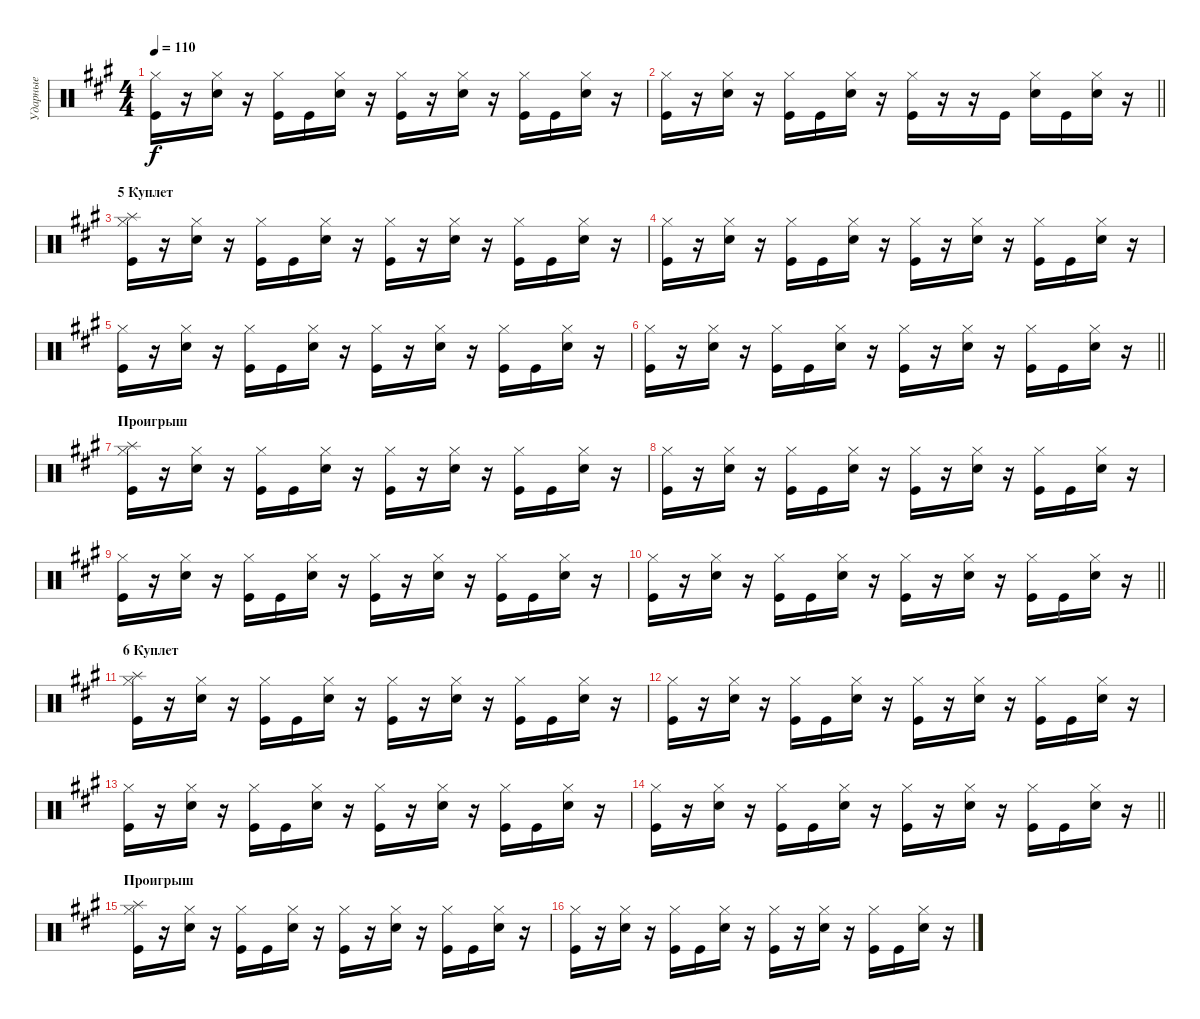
\track ("Ударные" "Ударные") {instrument percussion}
\staff {score}
\articulation defaults
\ts (4 4)
\tempo 110
\clef neutral
\ks f#minor
("Hi-Hat (closed)" "Kick (hit)").16{dy f} r.16 ("Hi-Hat (closed)" "Electric Snare (hit)").16 r.16 ("Hi-Hat (closed)" "Kick (hit)").16 "Kick (hit)".16 ("Hi-Hat (closed)" "Electric Snare (hit)").16 r.16 ("Hi-Hat (closed)" "Kick (hit)").16 r.16 ("Hi-Hat (closed)" "Electric Snare (hit)").16 r.16 ("Hi-Hat (closed)" "Kick (hit)").16 "Kick (hit)".16 ("Hi-Hat (closed)" "Electric Snare (hit)").16 r.16 |
\barLineRight lightlight
("Hi-Hat (closed)" "Kick (hit)").16 r.16 ("Hi-Hat (closed)" "Electric Snare (hit)").16 r.16 ("Hi-Hat (closed)" "Kick (hit)").16 "Kick (hit)".16 ("Hi-Hat (closed)" "Electric Snare (hit)").16 r.16 ("Hi-Hat (closed)" "Kick (hit)").16 r.16 r.16 "Kick (hit)".16 ("Hi-Hat (closed)" "Electric Snare (hit)").16 "Kick (hit)".16 ("Hi-Hat (closed)" "Electric Snare (hit)").16 r.16 |
\section ("" "5 Куплет")
("Hi-Hat (closed)" "Splash (hit)" "Kick (hit)").16 r.16 ("Hi-Hat (closed)" "Electric Snare (hit)").16 r.16 ("Hi-Hat (closed)" "Kick (hit)").16 "Kick (hit)".16 ("Hi-Hat (closed)" "Electric Snare (hit)").16 r.16 ("Hi-Hat (closed)" "Kick (hit)").16 r.16 ("Hi-Hat (closed)" "Electric Snare (hit)").16 r.16 ("Hi-Hat (closed)" "Kick (hit)").16 "Kick (hit)".16 ("Hi-Hat (closed)" "Electric Snare (hit)").16 r.16 |
("Hi-Hat (closed)" "Kick (hit)").16 r.16 ("Hi-Hat (closed)" "Electric Snare (hit)").16 r.16 ("Hi-Hat (closed)" "Kick (hit)").16 "Kick (hit)".16 ("Hi-Hat (closed)" "Electric Snare (hit)").16 r.16 ("Hi-Hat (closed)" "Kick (hit)").16 r.16 ("Hi-Hat (closed)" "Electric Snare (hit)").16 r.16 ("Hi-Hat (closed)" "Kick (hit)").16 "Kick (hit)".16 ("Hi-Hat (closed)" "Electric Snare (hit)").16 r.16 |
("Hi-Hat (closed)" "Kick (hit)").16 r.16 ("Hi-Hat (closed)" "Electric Snare (hit)").16 r.16 ("Hi-Hat (closed)" "Kick (hit)").16 "Kick (hit)".16 ("Hi-Hat (closed)" "Electric Snare (hit)").16 r.16 ("Hi-Hat (closed)" "Kick (hit)").16 r.16 ("Hi-Hat (closed)" "Electric Snare (hit)").16 r.16 ("Hi-Hat (closed)" "Kick (hit)").16 "Kick (hit)".16 ("Hi-Hat (closed)" "Electric Snare (hit)").16 r.16 |
\barLineRight lightlight
("Hi-Hat (closed)" "Kick (hit)").16 r.16 ("Hi-Hat (closed)" "Electric Snare (hit)").16 r.16 ("Hi-Hat (closed)" "Kick (hit)").16 "Kick (hit)".16 ("Hi-Hat (closed)" "Electric Snare (hit)").16 r.16 ("Hi-Hat (closed)" "Kick (hit)").16 r.16 ("Hi-Hat (closed)" "Electric Snare (hit)").16 r.16 ("Hi-Hat (closed)" "Kick (hit)").16 "Kick (hit)".16 ("Hi-Hat (closed)" "Electric Snare (hit)").16 r.16 |
\section ("" "Проигрыш")
("Hi-Hat (closed)" "Splash (hit)" "Kick (hit)").16 r.16 ("Hi-Hat (closed)" "Electric Snare (hit)").16 r.16 ("Hi-Hat (closed)" "Kick (hit)").16 "Kick (hit)".16 ("Hi-Hat (closed)" "Electric Snare (hit)").16 r.16 ("Hi-Hat (closed)" "Kick (hit)").16 r.16 ("Hi-Hat (closed)" "Electric Snare (hit)").16 r.16 ("Hi-Hat (closed)" "Kick (hit)").16 "Kick (hit)".16 ("Hi-Hat (closed)" "Electric Snare (hit)").16 r.16 |
("Hi-Hat (closed)" "Kick (hit)").16 r.16 ("Hi-Hat (closed)" "Electric Snare (hit)").16 r.16 ("Hi-Hat (closed)" "Kick (hit)").16 "Kick (hit)".16 ("Hi-Hat (closed)" "Electric Snare (hit)").16 r.16 ("Hi-Hat (closed)" "Kick (hit)").16 r.16 ("Hi-Hat (closed)" "Electric Snare (hit)").16 r.16 ("Hi-Hat (closed)" "Kick (hit)").16 "Kick (hit)".16 ("Hi-Hat (closed)" "Electric Snare (hit)").16 r.16 |
("Hi-Hat (closed)" "Kick (hit)").16 r.16 ("Hi-Hat (closed)" "Electric Snare (hit)").16 r.16 ("Hi-Hat (closed)" "Kick (hit)").16 "Kick (hit)".16 ("Hi-Hat (closed)" "Electric Snare (hit)").16 r.16 ("Hi-Hat (closed)" "Kick (hit)").16 r.16 ("Hi-Hat (closed)" "Electric Snare (hit)").16 r.16 ("Hi-Hat (closed)" "Kick (hit)").16 "Kick (hit)".16 ("Hi-Hat (closed)" "Electric Snare (hit)").16 r.16 |
\barLineRight lightlight
("Hi-Hat (closed)" "Kick (hit)").16 r.16 ("Hi-Hat (closed)" "Electric Snare (hit)").16 r.16 ("Hi-Hat (closed)" "Kick (hit)").16 "Kick (hit)".16 ("Hi-Hat (closed)" "Electric Snare (hit)").16 r.16 ("Hi-Hat (closed)" "Kick (hit)").16 r.16 ("Hi-Hat (closed)" "Electric Snare (hit)").16 r.16 ("Hi-Hat (closed)" "Kick (hit)").16 "Kick (hit)".16 ("Hi-Hat (closed)" "Electric Snare (hit)").16 r.16 |
\section ("" "6 Куплет")
("Hi-Hat (closed)" "Splash (hit)" "Kick (hit)").16 r.16 ("Hi-Hat (closed)" "Electric Snare (hit)").16 r.16 ("Hi-Hat (closed)" "Kick (hit)").16 "Kick (hit)".16 ("Hi-Hat (closed)" "Electric Snare (hit)").16 r.16 ("Hi-Hat (closed)" "Kick (hit)").16 r.16 ("Hi-Hat (closed)" "Electric Snare (hit)").16 r.16 ("Hi-Hat (closed)" "Kick (hit)").16 "Kick (hit)".16 ("Hi-Hat (closed)" "Electric Snare (hit)").16 r.16 |
("Hi-Hat (closed)" "Kick (hit)").16 r.16 ("Hi-Hat (closed)" "Electric Snare (hit)").16 r.16 ("Hi-Hat (closed)" "Kick (hit)").16 "Kick (hit)".16 ("Hi-Hat (closed)" "Electric Snare (hit)").16 r.16 ("Hi-Hat (closed)" "Kick (hit)").16 r.16 ("Hi-Hat (closed)" "Electric Snare (hit)").16 r.16 ("Hi-Hat (closed)" "Kick (hit)").16 "Kick (hit)".16 ("Hi-Hat (closed)" "Electric Snare (hit)").16 r.16 |
("Hi-Hat (closed)" "Kick (hit)").16 r.16 ("Hi-Hat (closed)" "Electric Snare (hit)").16 r.16 ("Hi-Hat (closed)" "Kick (hit)").16 "Kick (hit)".16 ("Hi-Hat (closed)" "Electric Snare (hit)").16 r.16 ("Hi-Hat (closed)" "Kick (hit)").16 r.16 ("Hi-Hat (closed)" "Electric Snare (hit)").16 r.16 ("Hi-Hat (closed)" "Kick (hit)").16 "Kick (hit)".16 ("Hi-Hat (closed)" "Electric Snare (hit)").16 r.16 |
\barLineRight lightlight
("Hi-Hat (closed)" "Kick (hit)").16 r.16 ("Hi-Hat (closed)" "Electric Snare (hit)").16 r.16 ("Hi-Hat (closed)" "Kick (hit)").16 "Kick (hit)".16 ("Hi-Hat (closed)" "Electric Snare (hit)").16 r.16 ("Hi-Hat (closed)" "Kick (hit)").16 r.16 ("Hi-Hat (closed)" "Electric Snare (hit)").16 r.16 ("Hi-Hat (closed)" "Kick (hit)").16 "Kick (hit)".16 ("Hi-Hat (closed)" "Electric Snare (hit)").16 r.16 |
\section ("" "Проигрыш")
("Hi-Hat (closed)" "Splash (hit)" "Kick (hit)").16 r.16 ("Hi-Hat (closed)" "Electric Snare (hit)").16 r.16 ("Hi-Hat (closed)" "Kick (hit)").16 "Kick (hit)".16 ("Hi-Hat (closed)" "Electric Snare (hit)").16 r.16 ("Hi-Hat (closed)" "Kick (hit)").16 r.16 ("Hi-Hat (closed)" "Electric Snare (hit)").16 r.16 ("Hi-Hat (closed)" "Kick (hit)").16 "Kick (hit)".16 ("Hi-Hat (closed)" "Electric Snare (hit)").16 r.16 |
("Hi-Hat (closed)" "Kick (hit)").16 r.16 ("Hi-Hat (closed)" "Electric Snare (hit)").16 r.16 ("Hi-Hat (closed)" "Kick (hit)").16 "Kick (hit)".16 ("Hi-Hat (closed)" "Electric Snare (hit)").16 r.16 ("Hi-Hat (closed)" "Kick (hit)").16 r.16 ("Hi-Hat (closed)" "Electric Snare (hit)").16 r.16 ("Hi-Hat (closed)" "Kick (hit)").16 "Kick (hit)".16 ("Hi-Hat (closed)" "Electric Snare (hit)").16 r.16
